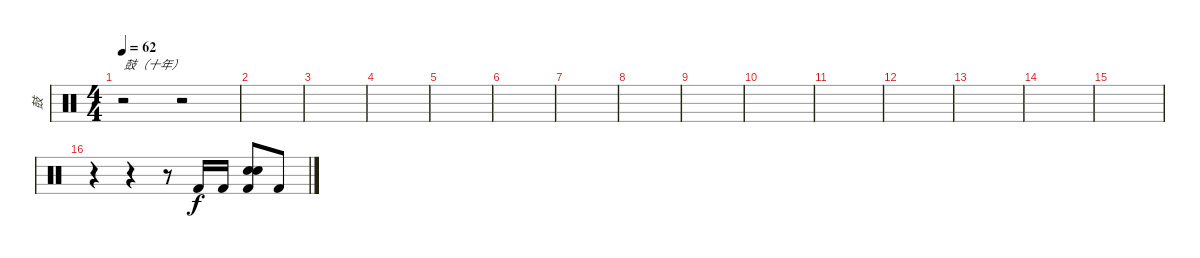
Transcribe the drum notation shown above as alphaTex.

\track ("鼓" "鼓") {instrument percussion}
\staff {score}
\articulation defaults
\ts (4 4)
\tempo 62
\clef neutral
\ks c
r.2{txt "鼓（十年）" dy f} r.2 |
|
|
|
|
|
|
|
|
|
|
|
|
|
|
r.4 r.4 r.8 "Kick (hit) 2".16 "Kick (hit) 2".16 ("Snare (hit) 2" "Snare (hit) 2" "Kick (hit) 2").8 "Kick (hit) 2".8
